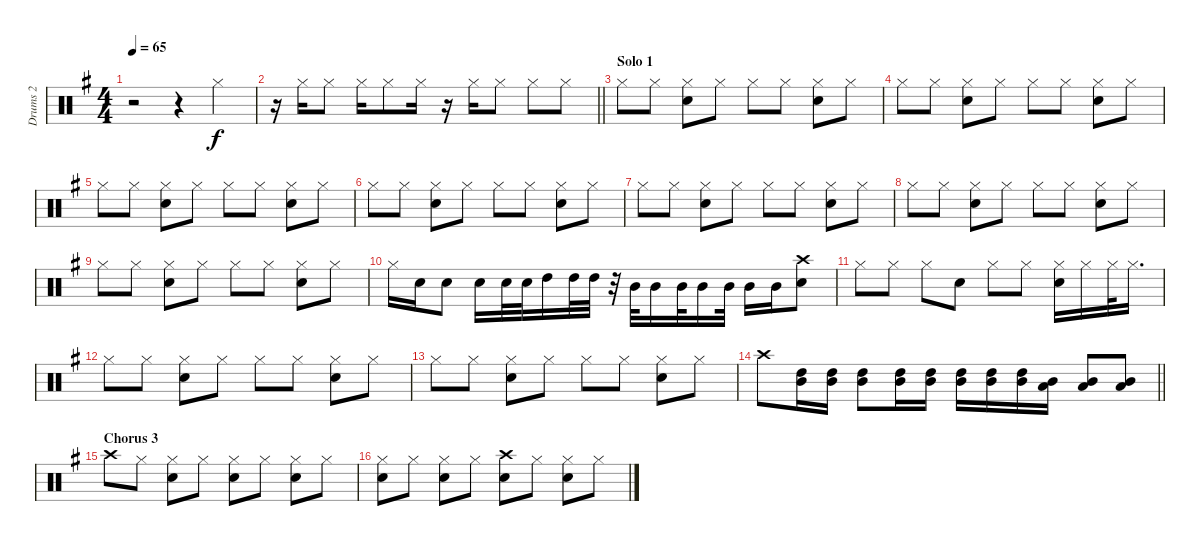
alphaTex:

\track ("Drums 2 " "Drums 2 ") {instrument percussion}
\staff {score}
\articulation defaults
\ts (4 4)
\tempo 65
\clef neutral
\ks g
r.2{dy f} r.4 "Hi-Hat (closed)".4 |
\barLineRight lightlight
r.16 "Hi-Hat (closed)".16 "Hi-Hat (closed)".8 "Hi-Hat (closed)".16 "Hi-Hat (closed)".8 "Hi-Hat (closed)".16 r.16 "Hi-Hat (closed)".16 "Hi-Hat (closed)".8 "Hi-Hat (closed)".8 "Hi-Hat (closed)".8 |
\section ("" "Solo 1")
"Hi-Hat (closed)".8 "Hi-Hat (closed)".8 ("Hi-Hat (closed)" "Snare (hit) 2").8 "Hi-Hat (closed)".8 "Hi-Hat (closed)".8 "Hi-Hat (closed)".8 ("Hi-Hat (closed)" "Snare (hit) 2").8 "Hi-Hat (closed)".8 |
"Hi-Hat (closed)".8 "Hi-Hat (closed)".8 ("Hi-Hat (closed)" "Snare (hit) 2").8 "Hi-Hat (closed)".8 "Hi-Hat (closed)".8 "Hi-Hat (closed)".8 ("Hi-Hat (closed)" "Snare (hit) 2").8 "Hi-Hat (closed)".8 |
"Hi-Hat (closed)".8 "Hi-Hat (closed)".8 ("Hi-Hat (closed)" "Snare (hit) 2").8 "Hi-Hat (closed)".8 "Hi-Hat (closed)".8 "Hi-Hat (closed)".8 ("Hi-Hat (closed)" "Snare (hit) 2").8 "Hi-Hat (closed)".8 |
"Hi-Hat (closed)".8 "Hi-Hat (closed)".8 ("Hi-Hat (closed)" "Snare (hit) 2").8 "Hi-Hat (closed)".8 "Hi-Hat (closed)".8 "Hi-Hat (closed)".8 ("Hi-Hat (closed)" "Snare (hit) 2").8 "Hi-Hat (closed)".8 |
"Hi-Hat (closed)".8 "Hi-Hat (closed)".8 ("Hi-Hat (closed)" "Snare (hit) 2").8 "Hi-Hat (closed)".8 "Hi-Hat (closed)".8 "Hi-Hat (closed)".8 ("Hi-Hat (closed)" "Snare (hit) 2").8 "Hi-Hat (closed)".8 |
"Hi-Hat (closed)".8 "Hi-Hat (closed)".8 ("Hi-Hat (closed)" "Snare (hit) 2").8 "Hi-Hat (closed)".8 "Hi-Hat (closed)".8 "Hi-Hat (closed)".8 ("Hi-Hat (closed)" "Snare (hit) 2").8 "Hi-Hat (closed)".8 |
"Hi-Hat (closed)".8 "Hi-Hat (closed)".8 ("Hi-Hat (closed)" "Snare (hit) 2").8 "Hi-Hat (closed)".8 "Hi-Hat (closed)".8 "Hi-Hat (closed)".8 ("Hi-Hat (closed)" "Snare (hit) 2").8 "Hi-Hat (closed)".8 |
"Hi-Hat (closed)".16 "Snare (hit) 2".16 "Snare (hit) 2".8 "Snare (hit) 2".16 "Snare (hit) 2".32 "Snare (hit) 2".32 "High Tom (hit)".16 "High Tom (hit)".32 "High Tom (hit)".32 r.32 "Mid Tom (hit)".32 "Mid Tom (hit)".16 "Mid Tom (hit)".32 "Mid Tom (hit)".16 "Mid Tom (hit)".32 "Mid Tom (hit)".16 "Mid Tom (hit)".16 ("Snare (hit) 2" "Crash high (hit)").8 |
"Hi-Hat (closed)".8 "Hi-Hat (closed)".8 "Hi-Hat (closed)".8 "Snare (hit) 2".8 "Hi-Hat (closed)".8 "Hi-Hat (closed)".8 ("Hi-Hat (closed)" "Snare (hit) 2").16 "Hi-Hat (closed)".16 "Hi-Hat (closed)".32 "Hi-Hat (closed)".16{d} |
"Hi-Hat (closed)".8 "Hi-Hat (closed)".8 ("Hi-Hat (closed)" "Snare (hit) 2").8 "Hi-Hat (closed)".8 "Hi-Hat (closed)".8 "Hi-Hat (closed)".8 ("Hi-Hat (closed)" "Snare (hit) 2").8 "Hi-Hat (closed)".8 |
"Hi-Hat (closed)".8 "Hi-Hat (closed)".8 ("Hi-Hat (closed)" "Snare (hit) 2").8 "Hi-Hat (closed)".8 "Hi-Hat (closed)".8 "Hi-Hat (closed)".8 ("Hi-Hat (closed)" "Snare (hit) 2").8 "Hi-Hat (closed)".8 |
\barLineRight lightlight "Crash high (hit)".8
("High Tom (hit)" "Mid Tom (hit)").16 ("Mid Tom (hit)" "High Tom (hit)").16 ("High Tom (hit)" "Mid Tom (hit)").8 ("High Tom (hit)" "Mid Tom (hit)").16 ("Mid Tom (hit)" "High Tom (hit)").16 ("High Tom (hit)" "Mid Tom (hit)").16 ("Mid Tom (hit)" "High Tom (hit)").16 ("Mid Tom (hit)" "High Tom (hit)").16 ("Low Tom (hit)" "Mid Tom (hit)").16 ("Mid Tom (hit)" "Low Tom (hit)").8 ("Mid Tom (hit)" "Low Tom (hit)").8 |
\section ("" "Chorus 3")
"Crash high (hit)".8 "Hi-Hat (closed)".8 ("Hi-Hat (closed)" "Snare (hit) 2").8 "Hi-Hat (closed)".8 ("Hi-Hat (closed)" "Snare (hit) 2").8 "Hi-Hat (closed)".8 ("Snare (hit) 2" "Hi-Hat (closed)").8 "Hi-Hat (closed)".8 |
("Hi-Hat (closed)" "Snare (hit) 2").8 "Hi-Hat (closed)".8 ("Hi-Hat (closed)" "Snare (hit) 2").8 "Hi-Hat (closed)".8 ("Crash high (hit)" "Snare (hit) 2").8 "Hi-Hat (closed)".8 ("Hi-Hat (closed)" "Snare (hit) 2").8 "Hi-Hat (closed)".8
